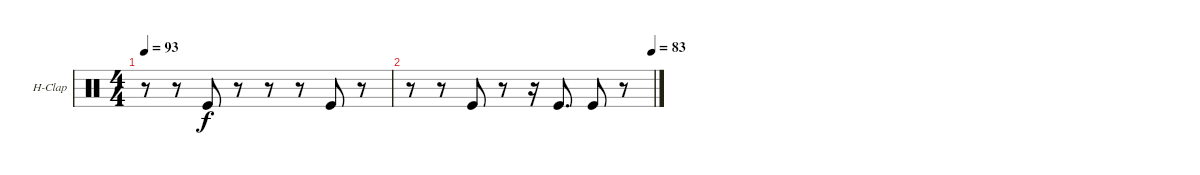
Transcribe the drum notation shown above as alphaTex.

\defaultSystemsLayout 4
\bracketExtendMode groupsimilarinstruments
\firstSystemTrackNameOrientation horizontal
\otherSystemsTrackNameOrientation horizontal
\track ("Hand Clap" "H-Clap") {instrument percussion}
\staff {score}
\articulation defaults
\ts (4 4)
\tempo 93
\clef neutral
\ks c
r.8{dy f} r.8 "Kick (hit)".8 r.8 r.8 r.8 "Kick (hit)".8 r.8 |
\tempo (83 0.99375)
r.8 r.8 "Kick (hit)".8 r.8 r.16 "Kick (hit)".8{d} "Kick (hit)".8 r.8
